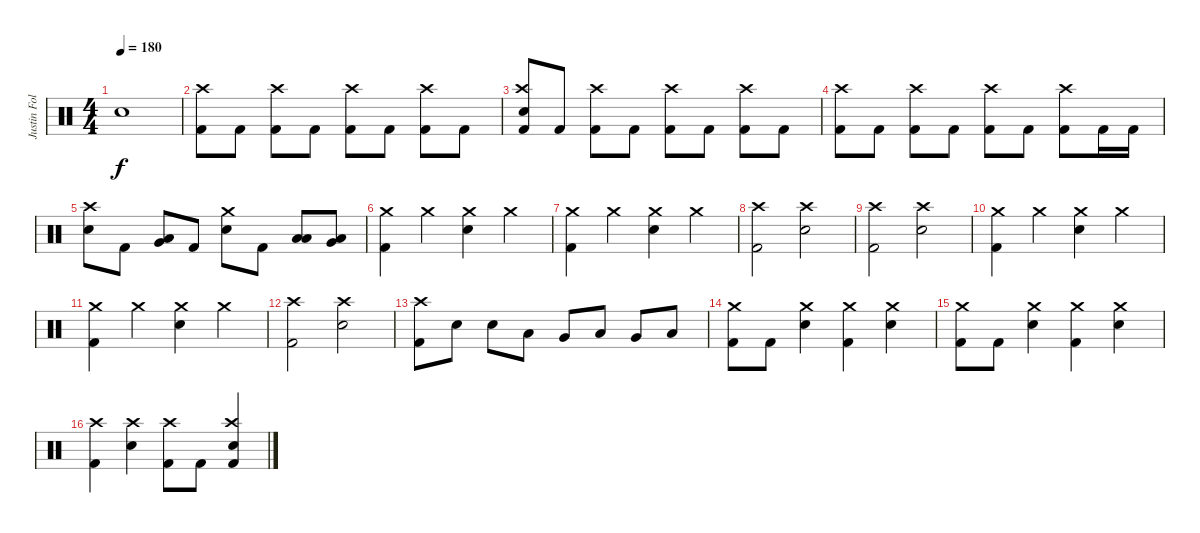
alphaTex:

\track ("Justin Foley" "Justin Fol") {instrument percussion}
\staff {score}
\articulation defaults
\ts (4 4)
\tempo 180
\clef neutral
\ks c "Electric Snare (hit)".1{dy f}
|
("Crash high (hit)" "Kick (hit) 2").8 "Kick (hit) 2".8 ("Crash high (hit)" "Kick (hit) 2").8 "Kick (hit) 2".8 ("Crash high (hit)" "Kick (hit) 2").8 "Kick (hit) 2".8 ("Crash high (hit)" "Kick (hit) 2").8 "Kick (hit) 2".8 |
("Crash high (hit)" "Electric Snare (hit)" "Kick (hit) 2").8 "Kick (hit) 2".8 ("Crash high (hit)" "Kick (hit) 2").8 "Kick (hit) 2".8 ("Crash high (hit)" "Kick (hit) 2").8 "Kick (hit) 2".8 ("Crash high (hit)" "Kick (hit) 2").8 "Kick (hit) 2".8 |
("Crash high (hit)" "Kick (hit) 2").8 "Kick (hit) 2".8 ("Crash high (hit)" "Kick (hit) 2").8 "Kick (hit) 2".8 ("Crash high (hit)" "Kick (hit) 2").8 "Kick (hit) 2".8 ("Crash high (hit)" "Kick (hit) 2").8 "Kick (hit) 2".16 "Kick (hit) 2".16 |
("Crash high (hit)" "Electric Snare (hit)").8 "Kick (hit) 2".8 ("Very Low Tom (hit)" "Low Floor Tom (hit)").8 "Kick (hit) 2".8 ("Crash medium (hit)" "Electric Snare (hit)").8 "Kick (hit) 2".8 ("Low Tom (hit)" "Low Floor Tom (hit)").8 ("Very Low Tom (hit)" "Low Floor Tom (hit)").8 |
("Crash medium (hit)" "Kick (hit) 2").4 "Crash medium (hit)".4 ("Crash medium (hit)" "Electric Snare (hit)").4 "Crash medium (hit)".4 |
("Crash medium (hit)" "Kick (hit) 2").4 "Crash medium (hit)".4 ("Crash medium (hit)" "Electric Snare (hit)").4 "Crash medium (hit)".4 |
("Crash high (hit)" "Kick (hit) 2").2 ("Crash high (hit)" "Electric Snare (hit)").2 |
("Crash high (hit)" "Kick (hit) 2").2 ("Crash high (hit)" "Electric Snare (hit)").2 |
("Crash medium (hit)" "Kick (hit) 2").4 "Crash medium (hit)".4 ("Crash medium (hit)" "Electric Snare (hit)").4 "Crash medium (hit)".4 |
("Crash medium (hit)" "Kick (hit) 2").4 "Crash medium (hit)".4 ("Crash medium (hit)" "Electric Snare (hit)").4 "Crash medium (hit)".4 |
("Crash high (hit)" "Kick (hit) 2").2 ("Crash high (hit)" "Electric Snare (hit)").2 |
("Crash high (hit)" "Kick (hit) 2").8 "Electric Snare (hit)".8 "Electric Snare (hit)".8 "Low Tom (hit)".8 "Very Low Tom (hit)".8 "Low Floor Tom (hit)".8 "Very Low Tom (hit)".8 "Low Floor Tom (hit)".8 |
("Crash medium (hit)" "Kick (hit) 2").8 "Kick (hit) 2".8 ("Crash medium (hit)" "Electric Snare (hit)").4 ("Crash medium (hit)" "Kick (hit) 2").4 ("Crash medium (hit)" "Electric Snare (hit)").4 |
("Crash medium (hit)" "Kick (hit) 2").8 "Kick (hit) 2".8 ("Crash medium (hit)" "Electric Snare (hit)").4 ("Crash medium (hit)" "Kick (hit) 2").4 ("Crash medium (hit)" "Electric Snare (hit)").4 |
("Crash high (hit)" "Kick (hit) 2").4 ("Crash high (hit)" "Electric Snare (hit)").4 ("Crash high (hit)" "Kick (hit) 2").8 "Kick (hit) 2".8 ("Crash high (hit)" "Electric Snare (hit)" "Kick (hit) 2").4
